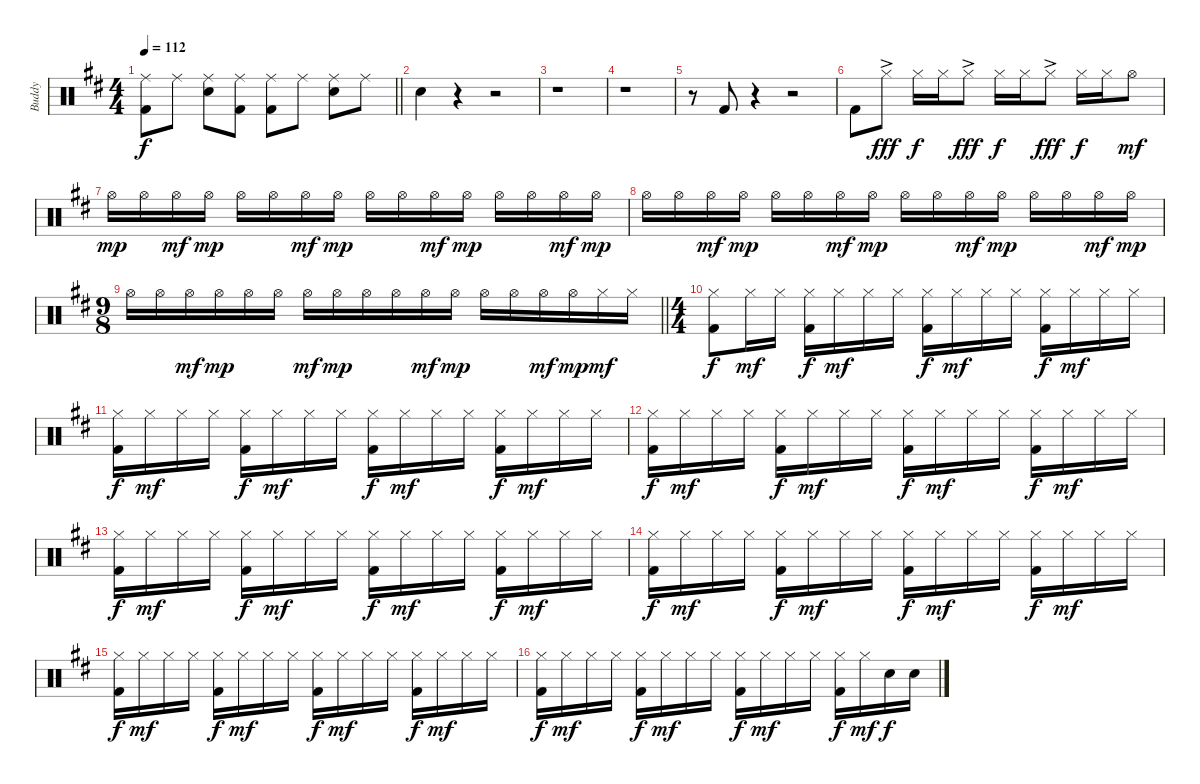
\track ("Buddy " "Buddy ") {instrument percussion}
\staff {score}
\articulation defaults
\ts (4 4)
\tempo 112
\clef neutral
\barLineRight lightlight
\ks d
("Ride (middle)" "Kick (hit) 2").8{dy f} "Ride (middle)".8 ("Ride (middle)" "Snare (hit) 2").8 ("Ride (middle)" "Kick (hit) 2").8 ("Ride (middle)" "Kick (hit) 2").8 "Ride (middle)".8 ("Ride (middle)" "Snare (hit) 2").8 "Ride (middle)".8 |
"Snare (hit) 2".4 r.4 r.2 |
r.1 |
r.1 |
r.8 "Kick (hit) 2".8 r.4 r.2 |
"Kick (hit) 2".8 "Hi-Hat (closed)"{ac}.8{dy fff} "Hi-Hat (closed)".16{dy f} "Hi-Hat (closed)".16 "Hi-Hat (closed)"{ac}.8{dy fff} "Hi-Hat (closed)".16{dy f} "Hi-Hat (closed)".16 "Hi-Hat (closed)"{ac}.8{dy fff} "Hi-Hat (closed)".16{dy f} "Hi-Hat (closed)".16 "Hi-Hat (open)".8{dy mf} |
"Hi-Hat (open)".16{dy mp} "Hi-Hat (open)".16 "Hi-Hat (open)".16{dy mf} "Hi-Hat (open)".16{dy mp} "Hi-Hat (open)".16 "Hi-Hat (open)".16 "Hi-Hat (open)".16{dy mf} "Hi-Hat (open)".16{dy mp} "Hi-Hat (open)".16 "Hi-Hat (open)".16 "Hi-Hat (open)".16{dy mf} "Hi-Hat (open)".16{dy mp} "Hi-Hat (open)".16 "Hi-Hat (open)".16 "Hi-Hat (open)".16{dy mf} "Hi-Hat (open)".16{dy mp} |
"Hi-Hat (open)".16 "Hi-Hat (open)".16 "Hi-Hat (open)".16{dy mf} "Hi-Hat (open)".16{dy mp} "Hi-Hat (open)".16 "Hi-Hat (open)".16 "Hi-Hat (open)".16{dy mf} "Hi-Hat (open)".16{dy mp} "Hi-Hat (open)".16 "Hi-Hat (open)".16 "Hi-Hat (open)".16{dy mf} "Hi-Hat (open)".16{dy mp} "Hi-Hat (open)".16 "Hi-Hat (open)".16 "Hi-Hat (open)".16{dy mf} "Hi-Hat (open)".16{dy mp} |
\ts (9 8)
\barLineRight lightlight "Hi-Hat (open)".16 "Hi-Hat (open)".16 "Hi-Hat (open)".16{dy mf} "Hi-Hat (open)".16{dy mp} "Hi-Hat (open)".16 "Hi-Hat (open)".16 "Hi-Hat (open)".16{dy mf} "Hi-Hat (open)".16{dy mp} "Hi-Hat (open)".16 "Hi-Hat (open)".16 "Hi-Hat (open)".16{dy mf} "Hi-Hat (open)".16{dy mp} "Hi-Hat (open)".16 "Hi-Hat (open)".16 "Hi-Hat (open)".16{dy mf} "Hi-Hat (open)".16{dy mp} "Hi-Hat (closed)".16{dy mf} "Hi-Hat (closed)".16
|
\ts (4 4)
("Hi-Hat (closed)" "Kick (hit) 2").8{dy f} "Hi-Hat (closed)".16{dy mf} "Hi-Hat (closed)".16 ("Hi-Hat (closed)" "Kick (hit) 2").16{dy f} "Hi-Hat (closed)".16{dy mf} "Hi-Hat (closed)".16 "Hi-Hat (closed)".16 ("Hi-Hat (closed)" "Kick (hit) 2").16{dy f} "Hi-Hat (closed)".16{dy mf} "Hi-Hat (closed)".16 "Hi-Hat (closed)".16 ("Hi-Hat (closed)" "Kick (hit) 2").16{dy f} "Hi-Hat (closed)".16{dy mf} "Hi-Hat (closed)".16 "Hi-Hat (closed)".16 |
("Hi-Hat (closed)" "Kick (hit) 2").16{dy f} "Hi-Hat (closed)".16{dy mf} "Hi-Hat (closed)".16 "Hi-Hat (closed)".16 ("Hi-Hat (closed)" "Kick (hit) 2").16{dy f} "Hi-Hat (closed)".16{dy mf} "Hi-Hat (closed)".16 "Hi-Hat (closed)".16 ("Hi-Hat (closed)" "Kick (hit) 2").16{dy f} "Hi-Hat (closed)".16{dy mf} "Hi-Hat (closed)".16 "Hi-Hat (closed)".16 ("Hi-Hat (closed)" "Kick (hit) 2").16{dy f} "Hi-Hat (closed)".16{dy mf} "Hi-Hat (closed)".16 "Hi-Hat (closed)".16 |
("Hi-Hat (closed)" "Kick (hit) 2").16{dy f} "Hi-Hat (closed)".16{dy mf} "Hi-Hat (closed)".16 "Hi-Hat (closed)".16 ("Hi-Hat (closed)" "Kick (hit) 2").16{dy f} "Hi-Hat (closed)".16{dy mf} "Hi-Hat (closed)".16 "Hi-Hat (closed)".16 ("Hi-Hat (closed)" "Kick (hit) 2").16{dy f} "Hi-Hat (closed)".16{dy mf} "Hi-Hat (closed)".16 "Hi-Hat (closed)".16 ("Hi-Hat (closed)" "Kick (hit) 2").16{dy f} "Hi-Hat (closed)".16{dy mf} "Hi-Hat (closed)".16 "Hi-Hat (closed)".16 |
("Hi-Hat (closed)" "Kick (hit) 2").16{dy f} "Hi-Hat (closed)".16{dy mf} "Hi-Hat (closed)".16 "Hi-Hat (closed)".16 ("Hi-Hat (closed)" "Kick (hit) 2").16{dy f} "Hi-Hat (closed)".16{dy mf} "Hi-Hat (closed)".16 "Hi-Hat (closed)".16 ("Hi-Hat (closed)" "Kick (hit) 2").16{dy f} "Hi-Hat (closed)".16{dy mf} "Hi-Hat (closed)".16 "Hi-Hat (closed)".16 ("Hi-Hat (closed)" "Kick (hit) 2").16{dy f} "Hi-Hat (closed)".16{dy mf} "Hi-Hat (closed)".16 "Hi-Hat (closed)".16 |
("Hi-Hat (closed)" "Kick (hit) 2").16{dy f} "Hi-Hat (closed)".16{dy mf} "Hi-Hat (closed)".16 "Hi-Hat (closed)".16 ("Hi-Hat (closed)" "Kick (hit) 2").16{dy f} "Hi-Hat (closed)".16{dy mf} "Hi-Hat (closed)".16 "Hi-Hat (closed)".16 ("Hi-Hat (closed)" "Kick (hit) 2").16{dy f} "Hi-Hat (closed)".16{dy mf} "Hi-Hat (closed)".16 "Hi-Hat (closed)".16 ("Hi-Hat (closed)" "Kick (hit) 2").16{dy f} "Hi-Hat (closed)".16{dy mf} "Hi-Hat (closed)".16 "Hi-Hat (closed)".16 |
("Hi-Hat (closed)" "Kick (hit) 2").16{dy f} "Hi-Hat (closed)".16{dy mf} "Hi-Hat (closed)".16 "Hi-Hat (closed)".16 ("Hi-Hat (closed)" "Kick (hit) 2").16{dy f} "Hi-Hat (closed)".16{dy mf} "Hi-Hat (closed)".16 "Hi-Hat (closed)".16 ("Hi-Hat (closed)" "Kick (hit) 2").16{dy f} "Hi-Hat (closed)".16{dy mf} "Hi-Hat (closed)".16 "Hi-Hat (closed)".16 ("Hi-Hat (closed)" "Kick (hit) 2").16{dy f} "Hi-Hat (closed)".16{dy mf} "Hi-Hat (closed)".16 "Hi-Hat (closed)".16 |
("Hi-Hat (closed)" "Kick (hit) 2").16{dy f} "Hi-Hat (closed)".16{dy mf} "Hi-Hat (closed)".16 "Hi-Hat (closed)".16 ("Hi-Hat (closed)" "Kick (hit) 2").16{dy f} "Hi-Hat (closed)".16{dy mf} "Hi-Hat (closed)".16 "Hi-Hat (closed)".16 ("Hi-Hat (closed)" "Kick (hit) 2").16{dy f} "Hi-Hat (closed)".16{dy mf} "Hi-Hat (closed)".16 "Hi-Hat (closed)".16 ("Hi-Hat (closed)" "Kick (hit) 2").16{dy f} "Hi-Hat (closed)".16{dy mf} "Snare (hit) 2".16{dy f} "Snare (hit) 2".16
